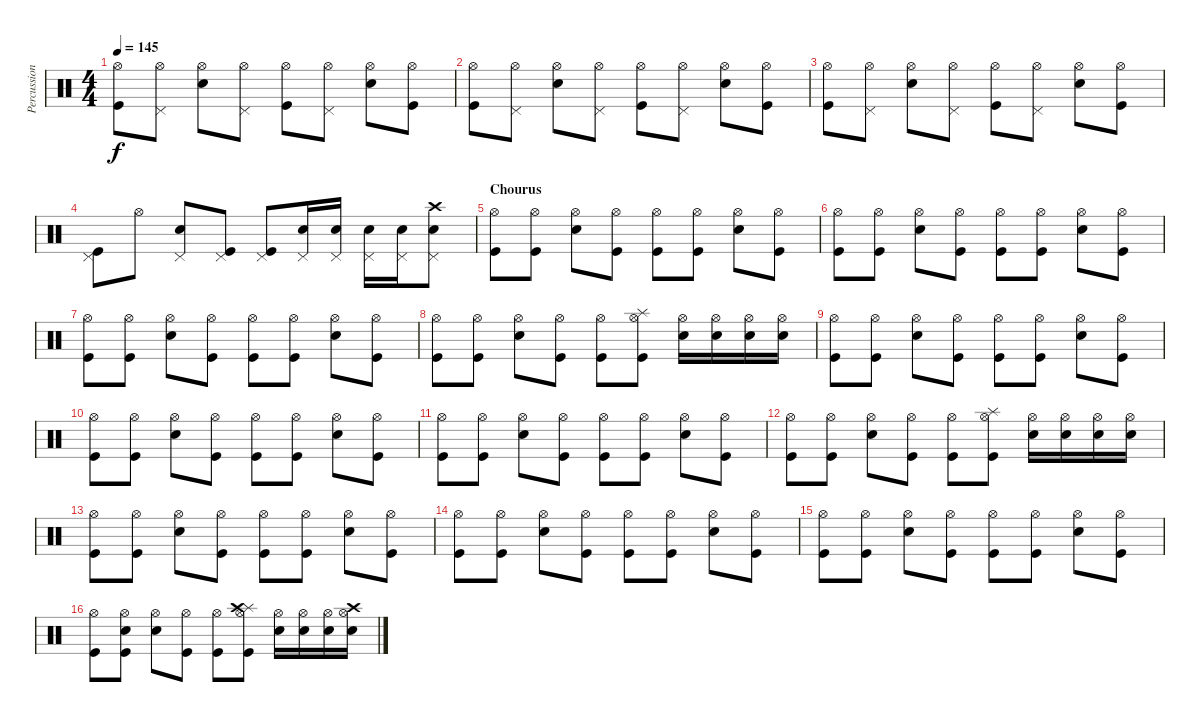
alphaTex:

\track ("Percussion" "Percussion") {instrument percussion}
\staff {score}
\articulation defaults
\ts (4 4)
\tempo 145
\clef neutral
\ks c
("Hi-Hat (open)" "Kick (hit)").8{dy f} ("Hi-Hat (open)" "Pedal Hi-Hat (hit)").8 ("Hi-Hat (open)" "Snare (hit) 2").8 ("Hi-Hat (open)" "Pedal Hi-Hat (hit)").8 ("Hi-Hat (open)" "Kick (hit)").8 ("Hi-Hat (open)" "Pedal Hi-Hat (hit)").8 ("Hi-Hat (open)" "Snare (hit) 2").8 ("Hi-Hat (open)" "Kick (hit)").8 |
("Hi-Hat (open)" "Kick (hit)").8 ("Hi-Hat (open)" "Pedal Hi-Hat (hit)").8 ("Hi-Hat (open)" "Snare (hit) 2").8 ("Hi-Hat (open)" "Pedal Hi-Hat (hit)").8 ("Hi-Hat (open)" "Kick (hit)").8 ("Hi-Hat (open)" "Pedal Hi-Hat (hit)").8 ("Hi-Hat (open)" "Snare (hit) 2").8 ("Hi-Hat (open)" "Kick (hit)").8 |
("Hi-Hat (open)" "Kick (hit)").8 ("Hi-Hat (open)" "Pedal Hi-Hat (hit)").8 ("Hi-Hat (open)" "Snare (hit) 2").8 ("Hi-Hat (open)" "Pedal Hi-Hat (hit)").8 ("Hi-Hat (open)" "Kick (hit)").8 ("Hi-Hat (open)" "Pedal Hi-Hat (hit)").8 ("Hi-Hat (open)" "Snare (hit) 2").8 ("Hi-Hat (open)" "Kick (hit)").8 |
("Pedal Hi-Hat (hit)" "Kick (hit)").8 "Hi-Hat (open)".8 ("Pedal Hi-Hat (hit)" "Snare (hit) 2").8 ("Pedal Hi-Hat (hit)" "Kick (hit)").8 ("Pedal Hi-Hat (hit)" "Kick (hit)").8 ("Pedal Hi-Hat (hit)" "Snare (hit) 2").16 ("Pedal Hi-Hat (hit)" "Snare (hit) 2").16 ("Pedal Hi-Hat (hit)" "Snare (hit) 2").16 ("Pedal Hi-Hat (hit)" "Snare (hit) 2").16 ("Pedal Hi-Hat (hit)" "Snare (hit) 2" "Crash high (hit)").8 |
\section ("" "Chourus")
("Hi-Hat (open)" "Kick (hit)").8 ("Hi-Hat (open)" "Kick (hit)").8 ("Hi-Hat (open)" "Snare (hit) 2").8 ("Hi-Hat (open)" "Kick (hit)").8 ("Hi-Hat (open)" "Kick (hit)").8 ("Hi-Hat (open)" "Kick (hit)").8 ("Hi-Hat (open)" "Snare (hit) 2").8 ("Hi-Hat (open)" "Kick (hit)").8 |
("Hi-Hat (open)" "Kick (hit)").8 ("Hi-Hat (open)" "Kick (hit)").8 ("Hi-Hat (open)" "Snare (hit) 2").8 ("Hi-Hat (open)" "Kick (hit)").8 ("Hi-Hat (open)" "Kick (hit)").8 ("Hi-Hat (open)" "Kick (hit)").8 ("Hi-Hat (open)" "Snare (hit) 2").8 ("Hi-Hat (open)" "Kick (hit)").8 |
("Hi-Hat (open)" "Kick (hit)").8 ("Hi-Hat (open)" "Kick (hit)").8 ("Hi-Hat (open)" "Snare (hit) 2").8 ("Hi-Hat (open)" "Kick (hit)").8 ("Hi-Hat (open)" "Kick (hit)").8 ("Hi-Hat (open)" "Kick (hit)").8 ("Hi-Hat (open)" "Snare (hit) 2").8 ("Hi-Hat (open)" "Kick (hit)").8 |
("Hi-Hat (open)" "Kick (hit)").8 ("Hi-Hat (open)" "Kick (hit)").8 ("Hi-Hat (open)" "Snare (hit) 2").8 ("Hi-Hat (open)" "Kick (hit)").8 ("Hi-Hat (open)" "Kick (hit)").8 ("Hi-Hat (open)" "Splash (hit)" "Kick (hit)").8 ("Hi-Hat (open)" "Snare (hit) 2").16 ("Hi-Hat (open)" "Snare (hit) 2").16 ("Hi-Hat (open)" "Snare (hit) 2").16 ("Hi-Hat (open)" "Snare (hit) 2").16 |
("Hi-Hat (open)" "Kick (hit)").8 ("Hi-Hat (open)" "Kick (hit)").8 ("Hi-Hat (open)" "Snare (hit) 2").8 ("Hi-Hat (open)" "Kick (hit)").8 ("Hi-Hat (open)" "Kick (hit)").8 ("Hi-Hat (open)" "Kick (hit)").8 ("Hi-Hat (open)" "Snare (hit) 2").8 ("Hi-Hat (open)" "Kick (hit)").8 |
("Hi-Hat (open)" "Kick (hit)").8 ("Hi-Hat (open)" "Kick (hit)").8 ("Hi-Hat (open)" "Snare (hit) 2").8 ("Hi-Hat (open)" "Kick (hit)").8 ("Hi-Hat (open)" "Kick (hit)").8 ("Hi-Hat (open)" "Kick (hit)").8 ("Hi-Hat (open)" "Snare (hit) 2").8 ("Hi-Hat (open)" "Kick (hit)").8 |
("Hi-Hat (open)" "Kick (hit)").8 ("Hi-Hat (open)" "Kick (hit)").8 ("Hi-Hat (open)" "Snare (hit) 2").8 ("Hi-Hat (open)" "Kick (hit)").8 ("Hi-Hat (open)" "Kick (hit)").8 ("Hi-Hat (open)" "Kick (hit)").8 ("Hi-Hat (open)" "Snare (hit) 2").8 ("Hi-Hat (open)" "Kick (hit)").8 |
("Hi-Hat (open)" "Kick (hit)").8 ("Hi-Hat (open)" "Kick (hit)").8 ("Hi-Hat (open)" "Snare (hit) 2").8 ("Hi-Hat (open)" "Kick (hit)").8 ("Hi-Hat (open)" "Kick (hit)").8 ("Hi-Hat (open)" "Splash (hit)" "Kick (hit)").8 ("Hi-Hat (open)" "Snare (hit) 2").16 ("Hi-Hat (open)" "Snare (hit) 2").16 ("Hi-Hat (open)" "Snare (hit) 2").16 ("Hi-Hat (open)" "Snare (hit) 2").16 |
("Hi-Hat (open)" "Kick (hit)").8 ("Hi-Hat (open)" "Kick (hit)").8 ("Hi-Hat (open)" "Snare (hit) 2").8 ("Hi-Hat (open)" "Kick (hit)").8 ("Hi-Hat (open)" "Kick (hit)").8 ("Hi-Hat (open)" "Kick (hit)").8 ("Hi-Hat (open)" "Snare (hit) 2").8 ("Hi-Hat (open)" "Kick (hit)").8 |
("Hi-Hat (open)" "Kick (hit)").8 ("Hi-Hat (open)" "Kick (hit)").8 ("Hi-Hat (open)" "Snare (hit) 2").8 ("Hi-Hat (open)" "Kick (hit)").8 ("Hi-Hat (open)" "Kick (hit)").8 ("Hi-Hat (open)" "Kick (hit)").8 ("Hi-Hat (open)" "Snare (hit) 2").8 ("Hi-Hat (open)" "Kick (hit)").8 |
("Hi-Hat (open)" "Kick (hit)").8 ("Hi-Hat (open)" "Kick (hit)").8 ("Hi-Hat (open)" "Snare (hit) 2").8 ("Hi-Hat (open)" "Kick (hit)").8 ("Hi-Hat (open)" "Kick (hit)").8 ("Hi-Hat (open)" "Kick (hit)").8 ("Hi-Hat (open)" "Snare (hit) 2").8 ("Hi-Hat (open)" "Kick (hit)").8 |
("Hi-Hat (open)" "Kick (hit)").8 ("Hi-Hat (open)" "Snare (hit) 2" "Kick (hit)").8 ("Hi-Hat (open)" "Snare (hit) 2").8 ("Hi-Hat (open)" "Kick (hit)").8 ("Hi-Hat (open)" "Kick (hit)").8 ("Hi-Hat (open)" "Splash (hit)" "Crash high (hit)" "Kick (hit)").8 ("Hi-Hat (open)" "Snare (hit) 2").16 ("Hi-Hat (open)" "Snare (hit) 2").16 ("Hi-Hat (open)" "Snare (hit) 2").16 ("Hi-Hat (open)" "Snare (hit) 2" "Crash high (hit)").16
